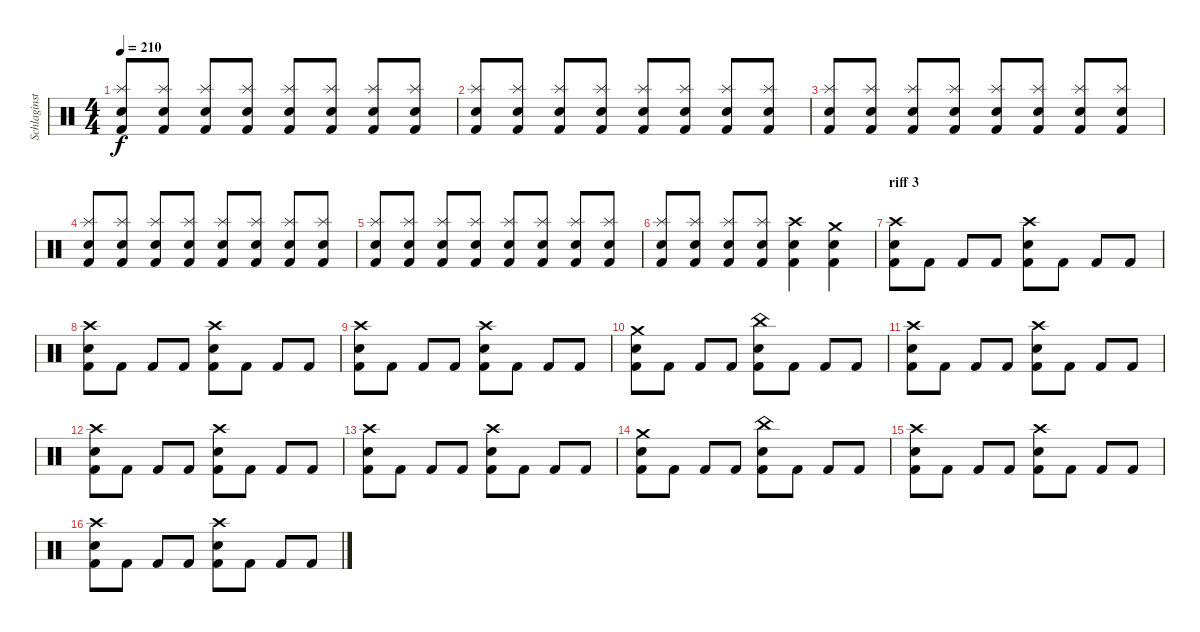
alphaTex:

\track ("Schlaginstrumente - Auswahl" "Schlaginst") {instrument percussion}
\staff {score}
\articulation defaults
\ts (4 4)
\tempo 210
\clef neutral
\ks c
("Electric Snare (hit)" "Splash (hit)" "Kick (hit) 2").8{dy f} ("Electric Snare (hit)" "Splash (hit)" "Kick (hit) 2").8 ("Electric Snare (hit)" "Splash (hit)" "Kick (hit) 2").8 ("Electric Snare (hit)" "Splash (hit)" "Kick (hit) 2").8 ("Electric Snare (hit)" "Splash (hit)" "Kick (hit) 2").8 ("Electric Snare (hit)" "Splash (hit)" "Kick (hit) 2").8 ("Electric Snare (hit)" "Splash (hit)" "Kick (hit) 2").8 ("Electric Snare (hit)" "Splash (hit)" "Kick (hit) 2").8 |
("Electric Snare (hit)" "Splash (hit)" "Kick (hit) 2").8 ("Electric Snare (hit)" "Splash (hit)" "Kick (hit) 2").8 ("Electric Snare (hit)" "Splash (hit)" "Kick (hit) 2").8 ("Electric Snare (hit)" "Splash (hit)" "Kick (hit) 2").8 ("Electric Snare (hit)" "Splash (hit)" "Kick (hit) 2").8 ("Electric Snare (hit)" "Splash (hit)" "Kick (hit) 2").8 ("Electric Snare (hit)" "Splash (hit)" "Kick (hit) 2").8 ("Electric Snare (hit)" "Splash (hit)" "Kick (hit) 2").8 |
("Electric Snare (hit)" "Splash (hit)" "Kick (hit) 2").8 ("Electric Snare (hit)" "Splash (hit)" "Kick (hit) 2").8 ("Electric Snare (hit)" "Splash (hit)" "Kick (hit) 2").8 ("Electric Snare (hit)" "Splash (hit)" "Kick (hit) 2").8 ("Electric Snare (hit)" "Splash (hit)" "Kick (hit) 2").8 ("Electric Snare (hit)" "Splash (hit)" "Kick (hit) 2").8 ("Electric Snare (hit)" "Splash (hit)" "Kick (hit) 2").8 ("Electric Snare (hit)" "Splash (hit)" "Kick (hit) 2").8 |
("Electric Snare (hit)" "Splash (hit)" "Kick (hit) 2").8 ("Electric Snare (hit)" "Splash (hit)" "Kick (hit) 2").8 ("Electric Snare (hit)" "Splash (hit)" "Kick (hit) 2").8 ("Electric Snare (hit)" "Splash (hit)" "Kick (hit) 2").8 ("Electric Snare (hit)" "Splash (hit)" "Kick (hit) 2").8 ("Electric Snare (hit)" "Splash (hit)" "Kick (hit) 2").8 ("Electric Snare (hit)" "Splash (hit)" "Kick (hit) 2").8 ("Electric Snare (hit)" "Splash (hit)" "Kick (hit) 2").8 |
("Electric Snare (hit)" "Splash (hit)" "Kick (hit) 2").8 ("Electric Snare (hit)" "Splash (hit)" "Kick (hit) 2").8 ("Electric Snare (hit)" "Splash (hit)" "Kick (hit) 2").8 ("Electric Snare (hit)" "Splash (hit)" "Kick (hit) 2").8 ("Electric Snare (hit)" "Splash (hit)" "Kick (hit) 2").8 ("Electric Snare (hit)" "Splash (hit)" "Kick (hit) 2").8 ("Electric Snare (hit)" "Splash (hit)" "Kick (hit) 2").8 ("Electric Snare (hit)" "Splash (hit)" "Kick (hit) 2").8 |
("Electric Snare (hit)" "Splash (hit)" "Kick (hit) 2").8 ("Electric Snare (hit)" "Splash (hit)" "Kick (hit) 2").8 ("Electric Snare (hit)" "Splash (hit)" "Kick (hit) 2").8 ("Electric Snare (hit)" "Splash (hit)" "Kick (hit) 2").8 ("Electric Snare (hit)" "Crash high (hit)" "Kick (hit) 2").4 ("Electric Snare (hit)" "Crash medium (hit)" "Kick (hit) 2").4 |
\section ("" "riff 3")
("Electric Snare (hit)" "Crash high (hit)" "Kick (hit) 2").8 "Kick (hit) 2".8 "Kick (hit) 2".8 "Kick (hit) 2".8 ("Electric Snare (hit)" "Crash high (hit)" "Kick (hit) 2").8 "Kick (hit) 2".8 "Kick (hit) 2".8 "Kick (hit) 2".8 |
("Electric Snare (hit)" "Crash high (hit)" "Kick (hit) 2").8 "Kick (hit) 2".8 "Kick (hit) 2".8 "Kick (hit) 2".8 ("Electric Snare (hit)" "Crash high (hit)" "Kick (hit) 2").8 "Kick (hit) 2".8 "Kick (hit) 2".8 "Kick (hit) 2".8 |
("Electric Snare (hit)" "Crash high (hit)" "Kick (hit) 2").8 "Kick (hit) 2".8 "Kick (hit) 2".8 "Kick (hit) 2".8 ("Electric Snare (hit)" "Crash high (hit)" "Kick (hit) 2").8 "Kick (hit) 2".8 "Kick (hit) 2".8 "Kick (hit) 2".8 |
("Electric Snare (hit)" "Crash medium (hit)" "Kick (hit) 2").8 "Kick (hit) 2".8 "Kick (hit) 2".8 "Kick (hit) 2".8 ("Electric Snare (hit)" "China (hit)" "Kick (hit) 2").8 "Kick (hit) 2".8 "Kick (hit) 2".8 "Kick (hit) 2".8 |
("Electric Snare (hit)" "Crash high (hit)" "Kick (hit) 2").8 "Kick (hit) 2".8 "Kick (hit) 2".8 "Kick (hit) 2".8 ("Electric Snare (hit)" "Crash high (hit)" "Kick (hit) 2").8 "Kick (hit) 2".8 "Kick (hit) 2".8 "Kick (hit) 2".8 |
("Electric Snare (hit)" "Crash high (hit)" "Kick (hit) 2").8 "Kick (hit) 2".8 "Kick (hit) 2".8 "Kick (hit) 2".8 ("Electric Snare (hit)" "Crash high (hit)" "Kick (hit) 2").8 "Kick (hit) 2".8 "Kick (hit) 2".8 "Kick (hit) 2".8 |
("Electric Snare (hit)" "Crash high (hit)" "Kick (hit) 2").8 "Kick (hit) 2".8 "Kick (hit) 2".8 "Kick (hit) 2".8 ("Electric Snare (hit)" "Crash high (hit)" "Kick (hit) 2").8 "Kick (hit) 2".8 "Kick (hit) 2".8 "Kick (hit) 2".8 |
("Electric Snare (hit)" "Crash medium (hit)" "Kick (hit) 2").8 "Kick (hit) 2".8 "Kick (hit) 2".8 "Kick (hit) 2".8 ("Electric Snare (hit)" "China (hit)" "Kick (hit) 2").8 "Kick (hit) 2".8 "Kick (hit) 2".8 "Kick (hit) 2".8 |
("Electric Snare (hit)" "Crash high (hit)" "Kick (hit) 2").8 "Kick (hit) 2".8 "Kick (hit) 2".8 "Kick (hit) 2".8 ("Electric Snare (hit)" "Crash high (hit)" "Kick (hit) 2").8 "Kick (hit) 2".8 "Kick (hit) 2".8 "Kick (hit) 2".8 |
("Electric Snare (hit)" "Crash high (hit)" "Kick (hit) 2").8 "Kick (hit) 2".8 "Kick (hit) 2".8 "Kick (hit) 2".8 ("Electric Snare (hit)" "Crash high (hit)" "Kick (hit) 2").8 "Kick (hit) 2".8 "Kick (hit) 2".8 "Kick (hit) 2".8
